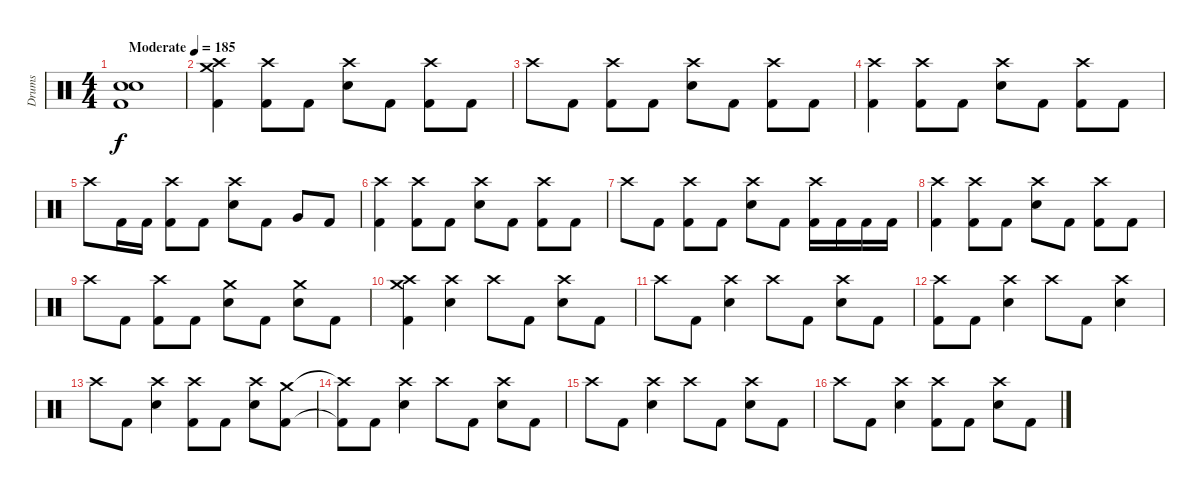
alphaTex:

\track ("Drums" "Drums") {instrument percussion}
\staff {score}
\articulation defaults
\ts (4 4)
\tempo (185 "Moderate")
\clef neutral
\ks c
("Electric Snare (hit)" "Electric Snare (hit)" "Kick (hit) 2").1{dy f} |
("Crash high (hit)" "Crash medium (hit)" "Kick (hit) 2").4 ("Crash high (hit)" "Kick (hit) 2").8 "Kick (hit) 2".8 ("Crash high (hit)" "Electric Snare (hit)").8 "Kick (hit) 2".8 ("Crash high (hit)" "Kick (hit) 2").8 "Kick (hit) 2".8 |
"Crash high (hit)".8 "Kick (hit) 2".8 ("Crash high (hit)" "Kick (hit) 2").8 "Kick (hit) 2".8 ("Crash high (hit)" "Electric Snare (hit)").8 "Kick (hit) 2".8 ("Crash high (hit)" "Kick (hit) 2").8 "Kick (hit) 2".8 |
("Crash high (hit)" "Kick (hit) 2").4 ("Crash high (hit)" "Kick (hit) 2").8 "Kick (hit) 2".8 ("Crash high (hit)" "Electric Snare (hit)").8 "Kick (hit) 2".8 ("Crash high (hit)" "Kick (hit) 2").8 "Kick (hit) 2".8 |
"Crash high (hit)".8 "Kick (hit) 2".16 "Kick (hit) 2".16 ("Crash high (hit)" "Kick (hit) 2").8 "Kick (hit) 2".8 ("Crash high (hit)" "Electric Snare (hit)").8 "Kick (hit) 2".8 "Very Low Tom (hit)".8 "Kick (hit) 2".8 |
("Crash high (hit)" "Kick (hit) 2").4 ("Crash high (hit)" "Kick (hit) 2").8 "Kick (hit) 2".8 ("Crash high (hit)" "Electric Snare (hit)").8 "Kick (hit) 2".8 ("Crash high (hit)" "Kick (hit) 2").8 "Kick (hit) 2".8 |
"Crash high (hit)".8 "Kick (hit) 2".8 ("Crash high (hit)" "Kick (hit) 2").8 "Kick (hit) 2".8 ("Crash high (hit)" "Electric Snare (hit)").8 "Kick (hit) 2".8 ("Crash high (hit)" "Kick (hit) 2").16 "Kick (hit) 2".16 "Kick (hit) 2".16 "Kick (hit) 2".16 |
("Crash high (hit)" "Kick (hit) 2").4 ("Crash high (hit)" "Kick (hit) 2").8 "Kick (hit) 2".8 ("Crash high (hit)" "Electric Snare (hit)").8 "Kick (hit) 2".8 ("Crash high (hit)" "Kick (hit) 2").8 "Kick (hit) 2".8 |
"Crash high (hit)".8 "Kick (hit) 2".8 ("Crash high (hit)" "Kick (hit) 2").8 "Kick (hit) 2".8 ("Crash medium (hit)" "Electric Snare (hit)").8 "Kick (hit) 2".8 ("Crash medium (hit)" "Electric Snare (hit)").8 "Kick (hit) 2".8 |
("Crash high (hit)" "Crash medium (hit)" "Kick (hit) 2").4 ("Crash high (hit)" "Electric Snare (hit)").4 "Crash high (hit)".8 "Kick (hit) 2".8 ("Crash high (hit)" "Electric Snare (hit)").8 "Kick (hit) 2".8 |
"Crash high (hit)".8 "Kick (hit) 2".8 ("Crash high (hit)" "Electric Snare (hit)").4 "Crash high (hit)".8 "Kick (hit) 2".8 ("Crash high (hit)" "Electric Snare (hit)").8 "Kick (hit) 2".8 |
("Crash high (hit)" "Kick (hit) 2").8 "Kick (hit) 2".8 ("Crash high (hit)" "Electric Snare (hit)").4 "Crash high (hit)".8 "Kick (hit) 2".8 ("Crash high (hit)" "Electric Snare (hit)").4 |
"Crash high (hit)".8 "Kick (hit) 2".8 ("Crash high (hit)" "Electric Snare (hit)").4 ("Crash high (hit)" "Kick (hit) 2").8 "Kick (hit) 2".8 ("Crash high (hit)" "Electric Snare (hit)").8 ("Crash medium (hit)" "Kick (hit) 2").8 |
("Crash high (hit)"{t} "Kick (hit) 2"{t}).8 "Kick (hit) 2".8 ("Crash high (hit)" "Electric Snare (hit)").4 "Crash high (hit)".8 "Kick (hit) 2".8 ("Crash high (hit)" "Electric Snare (hit)").8 "Kick (hit) 2".8 |
"Crash high (hit)".8 "Kick (hit) 2".8 ("Crash high (hit)" "Electric Snare (hit)").4 "Crash high (hit)".8 "Kick (hit) 2".8 ("Crash high (hit)" "Electric Snare (hit)").8 "Kick (hit) 2".8 |
"Crash high (hit)".8 "Kick (hit) 2".8 ("Crash high (hit)" "Electric Snare (hit)").4 ("Crash high (hit)" "Kick (hit) 2").8 "Kick (hit) 2".8 ("Crash high (hit)" "Electric Snare (hit)").8 "Kick (hit) 2".8
